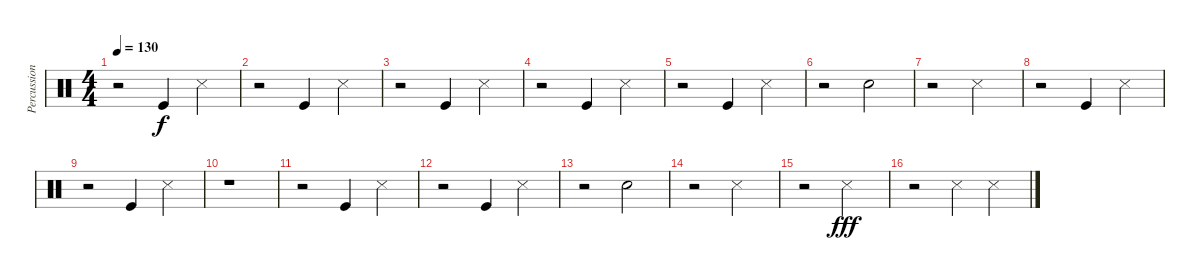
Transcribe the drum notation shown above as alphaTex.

\track ("Percussion" "Percussion") {instrument percussion}
\staff {score}
\articulation defaults
\ts (4 4)
\tempo 130
\clef neutral
\ks c
r.2{dy f} "Kick (hit)".4 "Snare (side stick) 3".4 |
r.2 "Kick (hit)".4 "Snare (side stick) 3".4 |
r.2 "Kick (hit)".4 "Snare (side stick) 3".4 |
r.2 "Kick (hit)".4 "Snare (side stick) 3".4 |
r.2 "Kick (hit)".4 "Snare (side stick) 3".4 |
r.2 "Snare (hit) 2".2 |
r.2 "Metronome (hit)".2 |
r.2 "Kick (hit)".4 "Snare (side stick) 3".4 |
r.2 "Kick (hit)".4 "Snare (side stick) 3".4 |
r.1 |
r.2 "Kick (hit)".4 "Snare (side stick) 3".4 |
r.2 "Kick (hit)".4 "Snare (side stick) 3".4 |
r.2 "Hand Clap (hit)".2 |
r.2 "Snare (side stick) 3".2 |
r.2 "Snare (side stick) 3".2{dy fff} |
r.2 "Snare (side stick) 3".4 "Snare (side stick) 3".4
